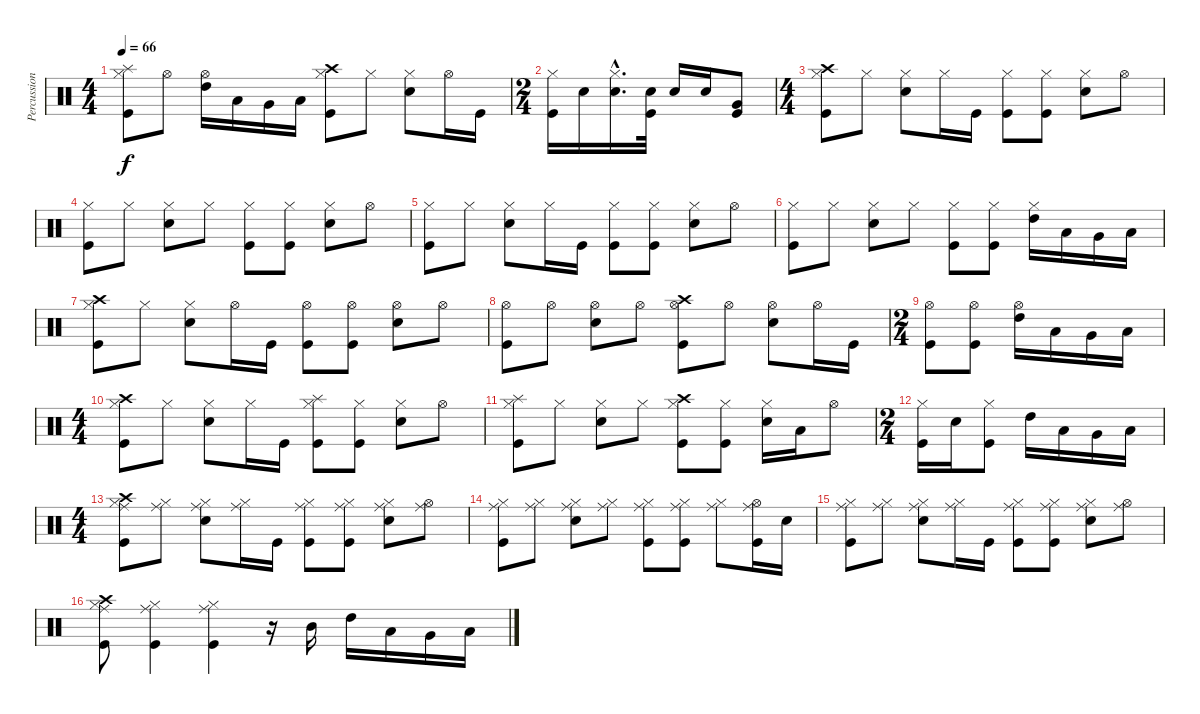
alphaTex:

\track ("Percussion" "Percussion") {instrument percussion}
\staff {score}
\articulation defaults
\ts (4 4)
\tempo 66
\clef neutral
\ks c
("Hi-Hat (closed)" "Kick (hit)" "Splash (hit)").8{dy f} "Hi-Hat (open)".8 ("Hi-Hat (open)" "High Tom (hit)").16 "Low Tom (hit)".16 "Very Low Tom (hit)".16 "Low Floor Tom (hit)".16 ("Hi-Hat (closed)" "Kick (hit)" "Crash high (hit)").8 "Hi-Hat (closed)".8 ("Hi-Hat (closed)" "Electric Snare (hit)").8 "Hi-Hat (open)".16 "Kick (hit)".16 |
\ts (2 4)
("Hi-Hat (closed)" "Kick (hit)").16 "Snare (hit) 2".16 ("Hi-Hat (closed)"{hac} "Snare (hit) 2"{hac}).16{d} ("Snare (hit) 2" "Kick (hit)").32 "Snare (hit) 2".16 "Snare (hit) 2".16 ("Kick (hit)" "Very Low Tom (hit)").8 |
\ts (4 4)
("Hi-Hat (closed)" "Kick (hit)" "Crash high (hit)").8 "Hi-Hat (closed)".8 ("Hi-Hat (closed)" "Electric Snare (hit)").8 "Hi-Hat (closed)".16 "Kick (hit)".16 ("Hi-Hat (closed)" "Kick (hit)").8 ("Hi-Hat (closed)" "Kick (hit)").8 ("Hi-Hat (closed)" "Electric Snare (hit)").8 "Hi-Hat (open)".8 |
("Hi-Hat (closed)" "Kick (hit)").8 "Hi-Hat (closed)".8 ("Hi-Hat (closed)" "Electric Snare (hit)").8 "Hi-Hat (closed)".8 ("Hi-Hat (closed)" "Kick (hit)").8 ("Hi-Hat (closed)" "Kick (hit)").8 ("Hi-Hat (closed)" "Electric Snare (hit)").8 "Hi-Hat (open)".8 |
("Hi-Hat (closed)" "Kick (hit)").8 "Hi-Hat (closed)".8 ("Hi-Hat (closed)" "Electric Snare (hit)").8 "Hi-Hat (closed)".16 "Kick (hit)".16 ("Hi-Hat (closed)" "Kick (hit)").8 ("Hi-Hat (closed)" "Kick (hit)").8 ("Hi-Hat (closed)" "Electric Snare (hit)").8 "Hi-Hat (open)".8 |
("Hi-Hat (closed)" "Kick (hit)").8 "Hi-Hat (closed)".8 ("Hi-Hat (closed)" "Electric Snare (hit)").8 "Hi-Hat (closed)".8 ("Hi-Hat (closed)" "Kick (hit)").8 ("Hi-Hat (closed)" "Kick (hit)").8 ("Hi-Hat (closed)" "High Tom (hit)").16 "Low Tom (hit)".16 "Very Low Tom (hit)".16 "Low Floor Tom (hit)".16 |
("Hi-Hat (closed)" "Kick (hit)" "Crash high (hit)").8 "Hi-Hat (closed)".8 ("Hi-Hat (closed)" "Electric Snare (hit)").8 "Hi-Hat (open)".16 "Kick (hit)".16 ("Hi-Hat (open)" "Kick (hit)").8 ("Hi-Hat (open)" "Kick (hit)").8 ("Hi-Hat (open)" "Electric Snare (hit)").8 "Hi-Hat (open)".8 |
("Hi-Hat (open)" "Kick (hit)").8 "Hi-Hat (open)".8 ("Hi-Hat (open)" "Electric Snare (hit)").8 "Hi-Hat (open)".8 ("Hi-Hat (open)" "Kick (hit)" "Crash high (hit)").8 "Hi-Hat (open)".8 ("Hi-Hat (open)" "Electric Snare (hit)").8 "Hi-Hat (open)".16 "Kick (hit)".16 |
\ts (2 4)
("Hi-Hat (open)" "Kick (hit)").8 ("Hi-Hat (open)" "Kick (hit)").8 ("Hi-Hat (open)" "High Tom (hit)").16 "Low Tom (hit)".16 "Very Low Tom (hit)".16 "Low Floor Tom (hit)".16 |
\ts (4 4)
("Hi-Hat (closed)" "Kick (hit)" "Crash high (hit)").8 "Hi-Hat (closed)".8 ("Hi-Hat (closed)" "Electric Snare (hit)").8 "Hi-Hat (closed)".16 "Kick (hit)".16 ("Hi-Hat (closed)" "Kick (hit)" "Splash (hit)").8 ("Hi-Hat (closed)" "Kick (hit)").8 ("Hi-Hat (closed)" "Electric Snare (hit)").8 "Hi-Hat (open)".8 |
("Hi-Hat (closed)" "Kick (hit)" "Splash (hit)").8 "Hi-Hat (closed)".8 ("Hi-Hat (closed)" "Electric Snare (hit)").8 "Hi-Hat (closed)".8 ("Hi-Hat (closed)" "Kick (hit)" "Crash high (hit)").8 ("Hi-Hat (closed)" "Kick (hit)").8 ("Hi-Hat (closed)" "Electric Snare (hit)").16 "Low Tom (hit)".16 "Hi-Hat (open)".8 |
\ts (2 4)
("Hi-Hat (closed)" "Kick (hit)").16 "Electric Snare (hit)".16 ("Hi-Hat (closed)" "Kick (hit)").8 "High Tom (hit)".16 "Low Tom (hit)".16 "Very Low Tom (hit)".16 "Low Floor Tom (hit)".16 |
\ts (4 4)
("Hi-Hat (closed)" "Kick (hit)" "Crash high (hit)" "Ride (middle)").8 ("Hi-Hat (closed)" "Ride (middle)").8 ("Hi-Hat (closed)" "Electric Snare (hit)" "Ride (middle)").8 ("Hi-Hat (closed)" "Ride (middle)").16 "Kick (hit)".16 ("Hi-Hat (closed)" "Kick (hit)" "Ride (middle)").8 ("Hi-Hat (closed)" "Kick (hit)" "Ride (middle)").8 ("Hi-Hat (closed)" "Electric Snare (hit)" "Ride (middle)").8 ("Hi-Hat (open)" "Ride (middle)").8 |
("Hi-Hat (closed)" "Kick (hit)" "Ride (middle)").8 ("Hi-Hat (closed)" "Ride (middle)").8 ("Hi-Hat (closed)" "Electric Snare (hit)" "Ride (middle)").8 ("Hi-Hat (closed)" "Ride (middle)").8 ("Hi-Hat (closed)" "Kick (hit)" "Ride (middle)").8 ("Hi-Hat (closed)" "Kick (hit)" "Ride (middle)").8 ("Hi-Hat (closed)" "Ride (middle)").8 ("Hi-Hat (open)" "Kick (hit)" "Ride (middle)").16 "Electric Snare (hit)".16 |
("Hi-Hat (closed)" "Kick (hit)" "Ride (middle)").8 ("Hi-Hat (closed)" "Ride (middle)").8 ("Hi-Hat (closed)" "Electric Snare (hit)" "Ride (middle)").8 ("Hi-Hat (closed)" "Ride (middle)").16 "Kick (hit)".16 ("Hi-Hat (closed)" "Kick (hit)" "Ride (middle)").8 ("Hi-Hat (closed)" "Kick (hit)" "Ride (middle)").8 ("Hi-Hat (closed)" "Electric Snare (hit)" "Ride (middle)").8 ("Hi-Hat (open)" "Ride (middle)").8 |
("Hi-Hat (closed)" "Kick (hit)" "Crash high (hit)" "Ride (middle)").8 ("Hi-Hat (closed)" "Kick (hit)" "Ride (middle)").4 ("Hi-Hat (closed)" "Kick (hit)" "Ride (middle)").4 r.16 "Mid Tom (hit)".16 "High Tom (hit)".16 "Low Tom (hit)".16 "Very Low Tom (hit)".16 "Low Floor Tom (hit)".16
